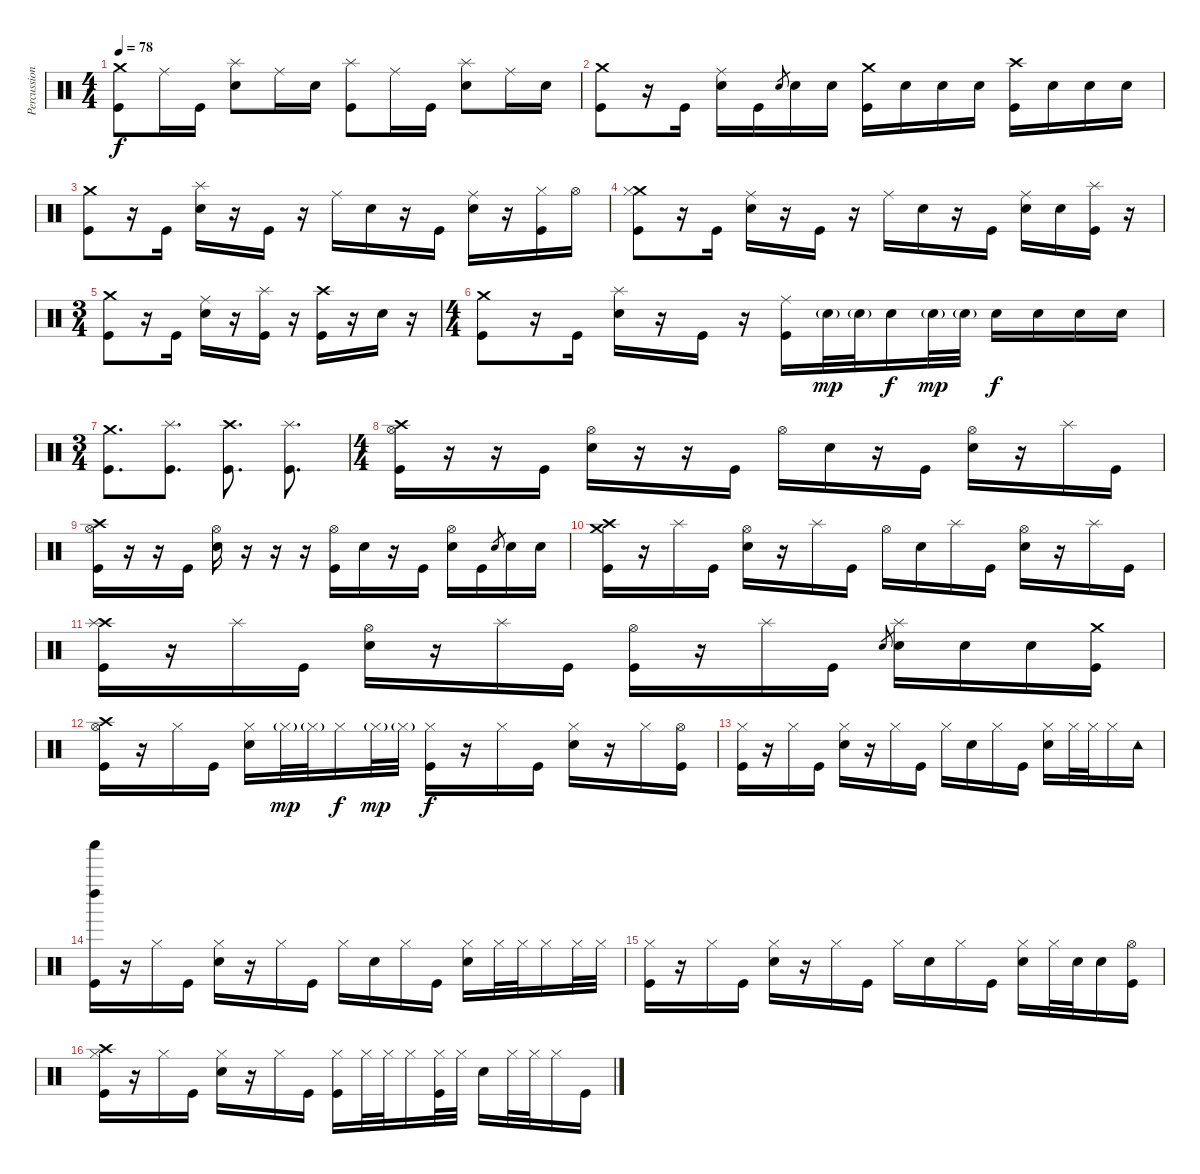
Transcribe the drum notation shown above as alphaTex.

\track ("Percussions" "Percussion") {instrument percussion}
\staff {score}
\articulation defaults
\ts (4 4)
\tempo 78
\clef neutral
\ks c
("Crash medium (hit)" "Kick (hit)").8{dy f} "Ride (middle)".16 "Kick (hit)".16 ("Splash (hit)" "Snare (hit) 2").8 "Ride (middle)".16 "Snare (hit) 2".16 ("Splash (hit)" "Kick (hit)").8 "Ride (middle)".16 "Kick (hit)".16 ("Splash (hit)" "Snare (hit) 2").8 "Ride (middle)".16 "Snare (hit) 2".16 |
("Crash medium (hit)" "Kick (hit)").8 r.16 "Kick (hit)".16 ("Ride (middle)" "Snare (hit) 2").16 "Kick (hit)".16 "Snare (hit) 2".8{gr} "Snare (hit) 2".16 "Snare (hit) 2".16 ("Crash medium (hit)" "Kick (hit)").16 "Snare (hit) 2".16 "Snare (hit) 2".16 "Snare (hit) 2".16 ("Crash high (hit)" "Kick (hit)").16 "Snare (hit) 2".16 "Snare (hit) 2".16 "Snare (hit) 2".16 |
("Crash medium (hit)" "Kick (hit)").8 r.16 "Kick (hit)".16 ("Splash (hit)" "Snare (hit) 2").16 r.16 "Kick (hit)".16 r.16 "Ride (middle)".16 "Snare (hit) 2".16 r.16 "Kick (hit)".16 ("Ride (middle)" "Snare (hit) 2").16 r.16 ("Hi-Hat (closed)" "Kick (hit)").16 "Hi-Hat (open)".16 |
("Crash medium (hit)" "Hi-Hat (closed)" "Kick (hit)").8 r.16 "Kick (hit)".16 ("Ride (middle)" "Snare (hit) 2").16 r.16 "Kick (hit)".16 r.16 "Ride (middle)".16 "Snare (hit) 2".16 r.16 "Kick (hit)".16 ("Ride (middle)" "Snare (hit) 2").16 "Snare (hit) 2".16 ("Splash (hit)" "Kick (hit)").16 r.16 |
\ts (3 4)
("Crash medium (hit)" "Kick (hit)").8 r.16 "Kick (hit)".16 ("Ride (middle)" "Snare (hit) 2").16 r.16 ("Splash (hit)" "Kick (hit)").16 r.16 ("Crash high (hit)" "Kick (hit)").16 r.16 "Snare (hit) 2".16 r.16 |
\ts (4 4)
("Crash medium (hit)" "Kick (hit)").8 r.16 "Kick (hit)".16 ("Splash (hit)" "Snare (hit) 2").16 r.16 "Kick (hit)".16 r.16 ("Ride (middle)" "Kick (hit)").16 "Snare (hit) 2"{g}.32{dy mp} "Snare (hit) 2"{g}.32 "Snare (hit) 2".16{dy f} "Snare (hit) 2"{g}.32{dy mp} "Snare (hit) 2"{g}.32 "Snare (hit) 2".16{dy f} "Snare (hit) 2".16 "Snare (hit) 2".16 "Snare (hit) 2".16 |
\ts (3 4)
("Crash medium (hit)" "Kick (hit)").8{d} ("Splash (hit)" "Kick (hit)").8{d} ("Crash high (hit)" "Kick (hit)").8{d} ("Splash (hit)" "Kick (hit)").8{d} |
\ts (4 4)
("Crash high (hit)" "Hi-Hat (open)" "Kick (hit)").16 r.16 r.16 "Kick (hit)".16 ("Hi-Hat (open)" "Snare (hit) 2").16 r.16 r.16 "Kick (hit)".16 "Hi-Hat (open)".16 "Snare (hit) 2".16 r.16 "Kick (hit)".16 ("Hi-Hat (open)" "Snare (hit) 2").16 r.16 "Splash (hit)".16 "Kick (hit)".16 |
("Crash high (hit)" "Hi-Hat (open)" "Kick (hit)").16 r.16 r.16 "Kick (hit)".16 ("Hi-Hat (open)" "Snare (hit) 2").16 r.16 r.16 r.16 ("Hi-Hat (open)" "Kick (hit)").16 "Snare (hit) 2".16 r.16 "Kick (hit)".16 ("Hi-Hat (open)" "Snare (hit) 2").16 "Kick (hit)".16 "Snare (hit) 2".8{gr} "Snare (hit) 2".16 "Snare (hit) 2".16 |
("Crash high (hit)" "Crash medium (hit)" "Kick (hit)").16 r.16 "Splash (hit)".16 "Kick (hit)".16 ("Hi-Hat (open)" "Snare (hit) 2").16 r.16 "Splash (hit)".16 "Kick (hit)".16 "Hi-Hat (open)".16 "Snare (hit) 2".16 "Splash (hit)".16 "Kick (hit)".16 ("Hi-Hat (open)" "Snare (hit) 2").16 r.16 "Splash (hit)".16 "Kick (hit)".16 |
("Crash high (hit)" "Splash (hit)" "Kick (hit)").16 r.16 "Splash (hit)".16 "Kick (hit)".16 ("Hi-Hat (open)" "Snare (hit) 2").16 r.16 "Splash (hit)".16 "Kick (hit)".16 ("Hi-Hat (open)" "Kick (hit)").16 r.16 "Splash (hit)".16 "Kick (hit)".16 "Snare (hit) 2".8{gr} ("Splash (hit)" "Snare (hit) 2").16 "Snare (hit) 2".16 "Snare (hit) 2".16 ("Crash medium (hit)" "Kick (hit)").16 |
("Crash high (hit)" "Hi-Hat (open)" "Kick (hit)").16 r.16 "Hi-Hat (closed)".16 "Kick (hit)".16 ("Hi-Hat (closed)" "Snare (hit) 2").16 "Hi-Hat (closed)"{g}.32{dy mp} "Hi-Hat (closed)"{g}.32 "Hi-Hat (closed)".16{dy f} "Hi-Hat (closed)"{g}.32{dy mp} "Hi-Hat (closed)"{g}.32 ("Hi-Hat (closed)" "Kick (hit)").16{dy f} r.16 "Hi-Hat (closed)".16 "Kick (hit)".16 ("Hi-Hat (closed)" "Snare (hit) 2").16 r.16 "Hi-Hat (closed)".16 ("Hi-Hat (open)" "Kick (hit)").16 |
("Hi-Hat (closed)" "Kick (hit)").16 r.16 "Hi-Hat (closed)".16 "Kick (hit)".16 ("Hi-Hat (closed)" "Snare (hit) 2").16 r.16 "Hi-Hat (closed)".16 "Kick (hit)".16 "Hi-Hat (closed)".16 "Snare (hit) 2".16 "Hi-Hat (closed)".16 "Kick (hit)".16 ("Hi-Hat (closed)" "Snare (hit) 2").16 "Hi-Hat (closed)".32 "Hi-Hat (closed)".32 "Hi-Hat (closed)".16 "Tambourine (hit)".16 |
("Left Maraca (hit)" "Shaker (hit)" "Kick (hit)").16 r.16 "Hi-Hat (closed)".16 "Kick (hit)".16 ("Hi-Hat (closed)" "Snare (hit) 2").16 r.16 "Hi-Hat (closed)".16 "Kick (hit)".16 "Hi-Hat (closed)".16 "Snare (hit) 2".16 "Hi-Hat (closed)".16 "Kick (hit)".16 ("Hi-Hat (closed)" "Snare (hit) 2").16 "Hi-Hat (closed)".32 "Hi-Hat (closed)".32 "Hi-Hat (closed)".16 "Hi-Hat (closed)".32 "Hi-Hat (closed)".32 |
("Hi-Hat (closed)" "Kick (hit)").16 r.16 "Hi-Hat (closed)".16 "Kick (hit)".16 ("Hi-Hat (closed)" "Snare (hit) 2").16 r.16 "Hi-Hat (closed)".16 "Kick (hit)".16 "Hi-Hat (closed)".16 "Snare (hit) 2".16 "Hi-Hat (closed)".16 "Kick (hit)".16 ("Hi-Hat (closed)" "Snare (hit) 2").16 "Hi-Hat (closed)".32 "Electric Snare (hit)".32 "Snare (hit) 2".16 ("Hi-Hat (open)" "Kick (hit)").16 |
("Crash high (hit)" "Hi-Hat (closed)" "Kick (hit)").16 r.16 "Hi-Hat (closed)".16 "Kick (hit)".16 ("Hi-Hat (closed)" "Snare (hit) 2").16 r.16 "Hi-Hat (closed)".16 "Kick (hit)".16 ("Hi-Hat (closed)" "Kick (hit)").16 "Hi-Hat (closed)".32 "Hi-Hat (closed)".32 "Hi-Hat (closed)".16 ("Hi-Hat (closed)" "Kick (hit)").32 "Hi-Hat (closed)".32 "Snare (hit) 2".16 "Hi-Hat (closed)".32 "Hi-Hat (closed)".32 "Hi-Hat (closed)".16 "Kick (hit)".16
